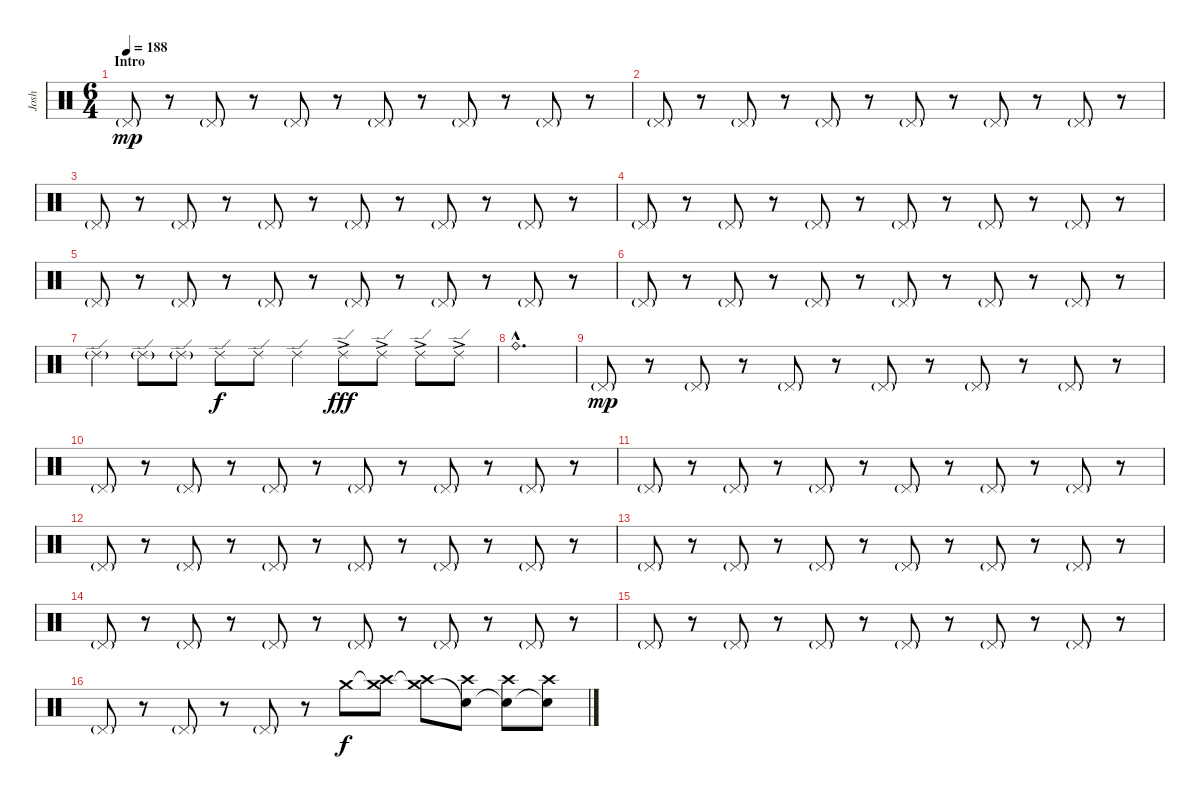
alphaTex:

\track ("Josh" "Josh") {instrument percussion}
\staff {score}
\articulation defaults
\ts (6 4)
\section ("" "Intro")
\tempo 188
\clef neutral
\ks c "Pedal Hi-Hat (hit)"{g}.8{dy mp}
r.8 "Pedal Hi-Hat (hit)"{g}.8 r.8 "Pedal Hi-Hat (hit)"{g}.8 r.8 "Pedal Hi-Hat (hit)"{g}.8 r.8 "Pedal Hi-Hat (hit)"{g}.8 r.8 "Pedal Hi-Hat (hit)"{g}.8 r.8 |
"Pedal Hi-Hat (hit)"{g}.8 r.8 "Pedal Hi-Hat (hit)"{g}.8 r.8 "Pedal Hi-Hat (hit)"{g}.8 r.8 "Pedal Hi-Hat (hit)"{g}.8 r.8 "Pedal Hi-Hat (hit)"{g}.8 r.8 "Pedal Hi-Hat (hit)"{g}.8 r.8 |
"Pedal Hi-Hat (hit)"{g}.8 r.8 "Pedal Hi-Hat (hit)"{g}.8 r.8 "Pedal Hi-Hat (hit)"{g}.8 r.8 "Pedal Hi-Hat (hit)"{g}.8 r.8 "Pedal Hi-Hat (hit)"{g}.8 r.8 "Pedal Hi-Hat (hit)"{g}.8 r.8 |
"Pedal Hi-Hat (hit)"{g}.8 r.8 "Pedal Hi-Hat (hit)"{g}.8 r.8 "Pedal Hi-Hat (hit)"{g}.8 r.8 "Pedal Hi-Hat (hit)"{g}.8 r.8 "Pedal Hi-Hat (hit)"{g}.8 r.8 "Pedal Hi-Hat (hit)"{g}.8 r.8 |
"Pedal Hi-Hat (hit)"{g}.8 r.8 "Pedal Hi-Hat (hit)"{g}.8 r.8 "Pedal Hi-Hat (hit)"{g}.8 r.8 "Pedal Hi-Hat (hit)"{g}.8 r.8 "Pedal Hi-Hat (hit)"{g}.8 r.8 "Pedal Hi-Hat (hit)"{g}.8 r.8 |
"Pedal Hi-Hat (hit)"{g}.8 r.8 "Pedal Hi-Hat (hit)"{g}.8 r.8 "Pedal Hi-Hat (hit)"{g}.8 r.8 "Pedal Hi-Hat (hit)"{g}.8 r.8 "Pedal Hi-Hat (hit)"{g}.8 r.8 "Pedal Hi-Hat (hit)"{g}.8 r.8 |
"Ride (edge) 2"{g}.4 "Ride (edge) 2"{g}.8 "Ride (edge) 2"{g}.8 "Ride (edge) 2".8{dy f} "Ride (edge) 2".8 "Ride (edge) 2".4 "Ride (edge) 2"{ac}.8{dy fff} "Ride (edge) 2"{ac}.8 "Ride (edge) 2"{ac}.8 "Ride (edge) 2"{ac}.8 |
"Ride (bell)"{hac}.1{d} |
"Pedal Hi-Hat (hit)"{g}.8{dy mp} r.8 "Pedal Hi-Hat (hit)"{g}.8 r.8 "Pedal Hi-Hat (hit)"{g}.8 r.8 "Pedal Hi-Hat (hit)"{g}.8 r.8 "Pedal Hi-Hat (hit)"{g}.8 r.8 "Pedal Hi-Hat (hit)"{g}.8 r.8 |
"Pedal Hi-Hat (hit)"{g}.8 r.8 "Pedal Hi-Hat (hit)"{g}.8 r.8 "Pedal Hi-Hat (hit)"{g}.8 r.8 "Pedal Hi-Hat (hit)"{g}.8 r.8 "Pedal Hi-Hat (hit)"{g}.8 r.8 "Pedal Hi-Hat (hit)"{g}.8 r.8 |
"Pedal Hi-Hat (hit)"{g}.8 r.8 "Pedal Hi-Hat (hit)"{g}.8 r.8 "Pedal Hi-Hat (hit)"{g}.8 r.8 "Pedal Hi-Hat (hit)"{g}.8 r.8 "Pedal Hi-Hat (hit)"{g}.8 r.8 "Pedal Hi-Hat (hit)"{g}.8 r.8 |
"Pedal Hi-Hat (hit)"{g}.8 r.8 "Pedal Hi-Hat (hit)"{g}.8 r.8 "Pedal Hi-Hat (hit)"{g}.8 r.8 "Pedal Hi-Hat (hit)"{g}.8 r.8 "Pedal Hi-Hat (hit)"{g}.8 r.8 "Pedal Hi-Hat (hit)"{g}.8 r.8 |
"Pedal Hi-Hat (hit)"{g}.8 r.8 "Pedal Hi-Hat (hit)"{g}.8 r.8 "Pedal Hi-Hat (hit)"{g}.8 r.8 "Pedal Hi-Hat (hit)"{g}.8 r.8 "Pedal Hi-Hat (hit)"{g}.8 r.8 "Pedal Hi-Hat (hit)"{g}.8 r.8 |
"Pedal Hi-Hat (hit)"{g}.8 r.8 "Pedal Hi-Hat (hit)"{g}.8 r.8 "Pedal Hi-Hat (hit)"{g}.8 r.8 "Pedal Hi-Hat (hit)"{g}.8 r.8 "Pedal Hi-Hat (hit)"{g}.8 r.8 "Pedal Hi-Hat (hit)"{g}.8 r.8 |
"Pedal Hi-Hat (hit)"{g}.8 r.8 "Pedal Hi-Hat (hit)"{g}.8 r.8 "Pedal Hi-Hat (hit)"{g}.8 r.8 "Pedal Hi-Hat (hit)"{g}.8 r.8 "Pedal Hi-Hat (hit)"{g}.8 r.8 "Pedal Hi-Hat (hit)"{g}.8 r.8 |
"Pedal Hi-Hat (hit)"{g}.8 r.8 "Pedal Hi-Hat (hit)"{g}.8 r.8 "Pedal Hi-Hat (hit)"{g}.8 r.8 "Crash medium (hit)".8{dy f volume 5} ("Crash medium (hit)"{t} "Crash high (hit)").8{volume 9} ("Crash medium (hit)"{t} "Crash high (hit)").8{volume 12} ("Snare (hit)"{t} "Crash high (hit)").8{volume 13} ("Snare (hit)"{t} "Crash high (hit)").8{volume 15} ("Snare (hit)"{t} "Crash high (hit)").8{volume 16}
